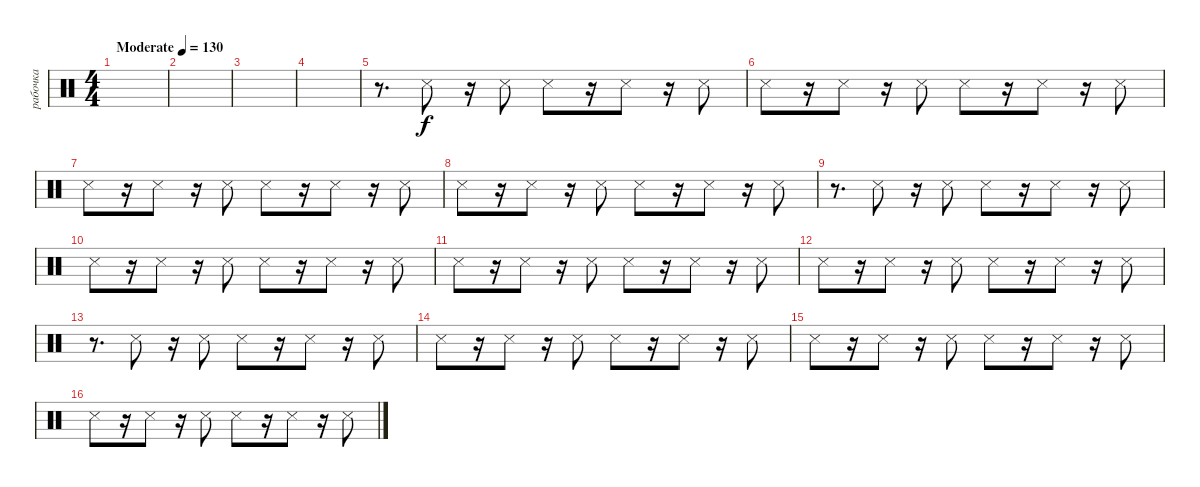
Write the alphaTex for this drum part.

\track ("рабочка" "рабочка") {instrument percussion}
\staff {score}
\articulation defaults
\ts (4 4)
\tempo (130 "Moderate")
\clef neutral
\ks c
|
|
|
|
r.8{d} "Snare (side stick) 3".8 r.16 "Snare (side stick) 3".8 "Snare (side stick) 3".8 r.16 "Snare (side stick) 3".8 r.16 "Snare (side stick) 3".8 |
"Snare (side stick) 3".8 r.16 "Snare (side stick) 3".8 r.16 "Snare (side stick) 3".8 "Snare (side stick) 3".8 r.16 "Snare (side stick) 3".8 r.16 "Snare (side stick) 3".8 |
"Snare (side stick) 3".8 r.16 "Snare (side stick) 3".8 r.16 "Snare (side stick) 3".8 "Snare (side stick) 3".8 r.16 "Snare (side stick) 3".8 r.16 "Snare (side stick) 3".8 |
"Snare (side stick) 3".8 r.16 "Snare (side stick) 3".8 r.16 "Snare (side stick) 3".8 "Snare (side stick) 3".8 r.16 "Snare (side stick) 3".8 r.16 "Snare (side stick) 3".8 |
r.8{d} "Snare (side stick) 3".8 r.16 "Snare (side stick) 3".8 "Snare (side stick) 3".8 r.16 "Snare (side stick) 3".8 r.16 "Snare (side stick) 3".8 |
"Snare (side stick) 3".8 r.16 "Snare (side stick) 3".8 r.16 "Snare (side stick) 3".8 "Snare (side stick) 3".8 r.16 "Snare (side stick) 3".8 r.16 "Snare (side stick) 3".8 |
"Snare (side stick) 3".8 r.16 "Snare (side stick) 3".8 r.16 "Snare (side stick) 3".8 "Snare (side stick) 3".8 r.16 "Snare (side stick) 3".8 r.16 "Snare (side stick) 3".8 |
"Snare (side stick) 3".8 r.16 "Snare (side stick) 3".8 r.16 "Snare (side stick) 3".8 "Snare (side stick) 3".8 r.16 "Snare (side stick) 3".8 r.16 "Snare (side stick) 3".8 |
r.8{d} "Snare (side stick) 3".8 r.16 "Snare (side stick) 3".8 "Snare (side stick) 3".8 r.16 "Snare (side stick) 3".8 r.16 "Snare (side stick) 3".8 |
"Snare (side stick) 3".8 r.16 "Snare (side stick) 3".8 r.16 "Snare (side stick) 3".8 "Snare (side stick) 3".8 r.16 "Snare (side stick) 3".8 r.16 "Snare (side stick) 3".8 |
"Snare (side stick) 3".8 r.16 "Snare (side stick) 3".8 r.16 "Snare (side stick) 3".8 "Snare (side stick) 3".8 r.16 "Snare (side stick) 3".8 r.16 "Snare (side stick) 3".8 |
"Snare (side stick) 3".8 r.16 "Snare (side stick) 3".8 r.16 "Snare (side stick) 3".8 "Snare (side stick) 3".8 r.16 "Snare (side stick) 3".8 r.16 "Snare (side stick) 3".8
